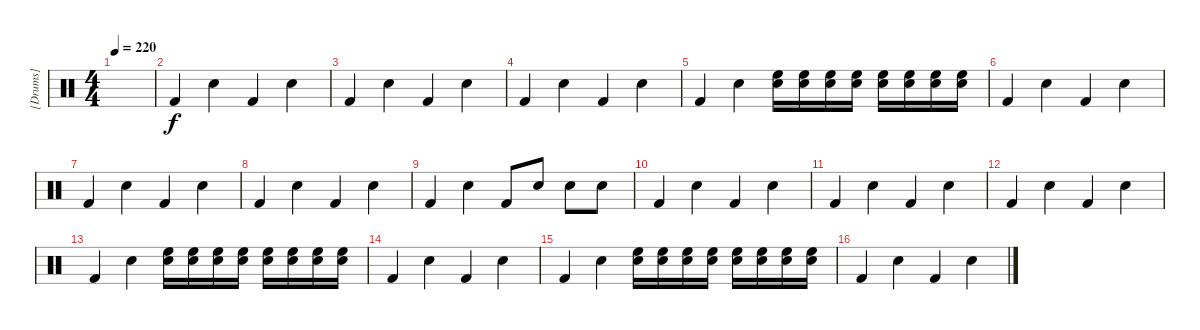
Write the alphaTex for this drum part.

\track ("[Drums]" "[Drums]") {instrument percussion}
\staff {score}
\articulation defaults
\ts (4 4)
\tempo 220
\clef neutral
\ks c
|
"Kick (hit) 2".4 "Electric Snare (hit)".4 "Kick (hit) 2".4 "Electric Snare (hit)".4 |
"Kick (hit) 2".4 "Electric Snare (hit)".4 "Kick (hit) 2".4 "Electric Snare (hit)".4 |
"Kick (hit) 2".4 "Electric Snare (hit)".4 "Kick (hit) 2".4 "Electric Snare (hit)".4 |
"Kick (hit) 2".4 "Electric Snare (hit)".4 ("Electric Snare (hit)" "High Floor Tom (hit)").16 ("Electric Snare (hit)" "High Floor Tom (hit)").16 ("Electric Snare (hit)" "High Floor Tom (hit)").16 ("Electric Snare (hit)" "High Floor Tom (hit)").16 ("Electric Snare (hit)" "High Floor Tom (hit)").16 ("Electric Snare (hit)" "High Floor Tom (hit)").16 ("Electric Snare (hit)" "High Floor Tom (hit)").16 ("Electric Snare (hit)" "High Floor Tom (hit)").16 |
"Kick (hit) 2".4 "Electric Snare (hit)".4 "Kick (hit) 2".4 "Electric Snare (hit)".4 |
"Kick (hit) 2".4 "Electric Snare (hit)".4 "Kick (hit) 2".4 "Electric Snare (hit)".4 |
"Kick (hit) 2".4 "Electric Snare (hit)".4 "Kick (hit) 2".4 "Electric Snare (hit)".4 |
"Kick (hit) 2".4 "Electric Snare (hit)".4 "Kick (hit) 2".8 "Electric Snare (hit)".8 "Electric Snare (hit)".8 "Electric Snare (hit)".8 |
"Kick (hit) 2".4 "Electric Snare (hit)".4 "Kick (hit) 2".4 "Electric Snare (hit)".4 |
"Kick (hit) 2".4 "Electric Snare (hit)".4 "Kick (hit) 2".4 "Electric Snare (hit)".4 |
"Kick (hit) 2".4 "Electric Snare (hit)".4 "Kick (hit) 2".4 "Electric Snare (hit)".4 |
"Kick (hit) 2".4 "Electric Snare (hit)".4 ("Electric Snare (hit)" "High Floor Tom (hit)").16 ("Electric Snare (hit)" "High Floor Tom (hit)").16 ("Electric Snare (hit)" "High Floor Tom (hit)").16 ("Electric Snare (hit)" "High Floor Tom (hit)").16 ("Electric Snare (hit)" "High Floor Tom (hit)").16 ("Electric Snare (hit)" "High Floor Tom (hit)").16 ("Electric Snare (hit)" "High Floor Tom (hit)").16 ("Electric Snare (hit)" "High Floor Tom (hit)").16 |
"Kick (hit) 2".4 "Electric Snare (hit)".4 "Kick (hit) 2".4 "Electric Snare (hit)".4 |
"Kick (hit) 2".4 "Electric Snare (hit)".4 ("Electric Snare (hit)" "High Floor Tom (hit)").16 ("Electric Snare (hit)" "High Floor Tom (hit)").16 ("Electric Snare (hit)" "High Floor Tom (hit)").16 ("Electric Snare (hit)" "High Floor Tom (hit)").16 ("Electric Snare (hit)" "High Floor Tom (hit)").16 ("Electric Snare (hit)" "High Floor Tom (hit)").16 ("Electric Snare (hit)" "High Floor Tom (hit)").16 ("Electric Snare (hit)" "High Floor Tom (hit)").16 |
"Kick (hit) 2".4 "Electric Snare (hit)".4 "Kick (hit) 2".4 "Electric Snare (hit)".4
